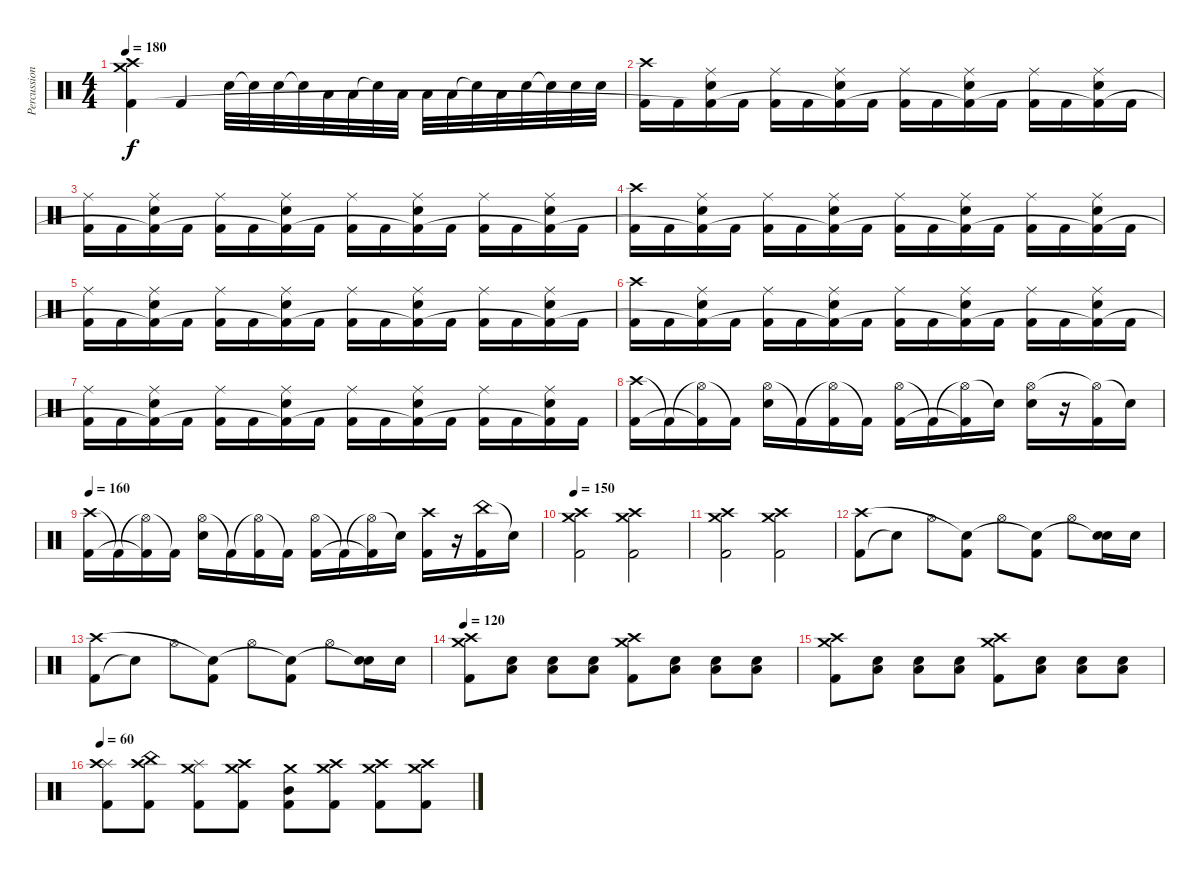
\track ("Percussions" "Percussion") {instrument percussion}
\staff {score}
\articulation defaults
\ts (4 4)
\tempo 180
\clef neutral
\ks c
("Crash high (hit)" "Crash medium (hit)" "Kick (hit) 2").4{dy f} "Kick (hit) 2".4 "Snare (hit) 2".32 "Snare (hit) 2"{t}.32 "Snare (hit) 2".32 "Snare (hit) 2"{t}.32 "Low Tom (hit)".32 "Low Tom (hit)".32 "Snare (hit)"{t}.32 "Low Tom (hit)".32 "Low Floor Tom (hit)".32 "Low Floor Tom (hit)".32 "Snare (hit)"{t}.32 "Low Floor Tom (hit)".32 "Snare (hit) 2".32 "Snare (hit)"{t}.32 "Snare (hit) 2".32 "Snare (hit) 2".32 |
("Crash high (hit)" "Kick (hit) 2").16 "Kick (hit) 2".16 ("Ride (middle)" "Electric Snare (hit)" "Kick (hit) 2"{t}).16 "Kick (hit) 2".16 ("Ride (middle)" "Kick (hit) 2").16 "Kick (hit) 2".16 ("Ride (middle)" "Electric Snare (hit)" "Kick (hit) 2"{t}).16 "Kick (hit) 2".16 ("Ride (middle)" "Kick (hit) 2").16 "Kick (hit) 2".16 ("Ride (middle)" "Electric Snare (hit)" "Kick (hit) 2"{t}).16 "Kick (hit) 2".16 ("Ride (middle)" "Kick (hit) 2").16 "Kick (hit) 2".16 ("Ride (middle)" "Electric Snare (hit)" "Kick (hit) 2"{t}).16 "Kick (hit) 2".16 |
("Ride (middle)" "Kick (hit) 2").16 "Kick (hit) 2".16 ("Ride (middle)" "Electric Snare (hit)" "Kick (hit) 2"{t}).16 "Kick (hit) 2".16 ("Ride (middle)" "Kick (hit) 2").16 "Kick (hit) 2".16 ("Ride (middle)" "Electric Snare (hit)" "Kick (hit) 2"{t}).16 "Kick (hit) 2".16 ("Ride (middle)" "Kick (hit) 2").16 "Kick (hit) 2".16 ("Ride (middle)" "Electric Snare (hit)" "Kick (hit) 2"{t}).16 "Kick (hit) 2".16 ("Ride (middle)" "Kick (hit) 2").16 "Kick (hit) 2".16 ("Ride (middle)" "Electric Snare (hit)" "Kick (hit) 2"{t}).16 "Kick (hit) 2".16 |
("Crash high (hit)" "Kick (hit) 2").16 "Kick (hit) 2".16 ("Ride (middle)" "Electric Snare (hit)" "Kick (hit) 2"{t}).16 "Kick (hit) 2".16 ("Ride (middle)" "Kick (hit) 2").16 "Kick (hit) 2".16 ("Ride (middle)" "Electric Snare (hit)" "Kick (hit) 2"{t}).16 "Kick (hit) 2".16 ("Ride (middle)" "Kick (hit) 2").16 "Kick (hit) 2".16 ("Ride (middle)" "Electric Snare (hit)" "Kick (hit) 2"{t}).16 "Kick (hit) 2".16 ("Ride (middle)" "Kick (hit) 2").16 "Kick (hit) 2".16 ("Ride (middle)" "Electric Snare (hit)" "Kick (hit) 2"{t}).16 "Kick (hit) 2".16 |
("Ride (middle)" "Kick (hit) 2").16 "Kick (hit) 2".16 ("Ride (middle)" "Electric Snare (hit)" "Kick (hit) 2"{t}).16 "Kick (hit) 2".16 ("Ride (middle)" "Kick (hit) 2").16 "Kick (hit) 2".16 ("Ride (middle)" "Electric Snare (hit)" "Kick (hit) 2"{t}).16 "Kick (hit) 2".16 ("Ride (middle)" "Kick (hit) 2").16 "Kick (hit) 2".16 ("Ride (middle)" "Electric Snare (hit)" "Kick (hit) 2"{t}).16 "Kick (hit) 2".16 ("Ride (middle)" "Kick (hit) 2").16 "Kick (hit) 2".16 ("Ride (middle)" "Electric Snare (hit)" "Kick (hit) 2"{t}).16 "Kick (hit) 2".16 |
("Crash high (hit)" "Kick (hit) 2").16 "Kick (hit) 2".16 ("Ride (middle)" "Electric Snare (hit)" "Kick (hit) 2"{t}).16 "Kick (hit) 2".16 ("Ride (middle)" "Kick (hit) 2").16 "Kick (hit) 2".16 ("Ride (middle)" "Electric Snare (hit)" "Kick (hit) 2"{t}).16 "Kick (hit) 2".16 ("Ride (middle)" "Kick (hit) 2").16 "Kick (hit) 2".16 ("Ride (middle)" "Electric Snare (hit)" "Kick (hit) 2"{t}).16 "Kick (hit) 2".16 ("Ride (middle)" "Kick (hit) 2").16 "Kick (hit) 2".16 ("Ride (middle)" "Electric Snare (hit)" "Kick (hit) 2"{t}).16 "Kick (hit) 2".16 |
("Ride (middle)" "Kick (hit) 2").16 "Kick (hit) 2".16 ("Ride (middle)" "Electric Snare (hit)" "Kick (hit) 2"{t}).16 "Kick (hit) 2".16 ("Ride (middle)" "Kick (hit) 2").16 "Kick (hit) 2".16 ("Ride (middle)" "Electric Snare (hit)" "Kick (hit) 2"{t}).16 "Kick (hit) 2".16 ("Ride (middle)" "Kick (hit) 2").16 "Kick (hit) 2".16 ("Ride (middle)" "Electric Snare (hit)" "Kick (hit) 2"{t}).16 "Kick (hit) 2".16 ("Ride (middle)" "Kick (hit) 2").16 "Kick (hit) 2".16 ("Ride (middle)" "Electric Snare (hit)" "Kick (hit) 2"{t}).16 "Kick (hit) 2".16 |
("Crash high (hit)" "Kick (hit) 2").16 "Kick (hit) 2"{t}.16 ("Hi-Hat (open)"{t} "Kick (hit) 2"{t}).16 "Kick (hit) 2"{t}.16 ("Hi-Hat (open)" "Electric Snare (hit)").16 "Kick (hit) 2"{t}.16 ("Hi-Hat (open)"{t} "Kick (hit) 2").16 "Kick (hit) 2"{t}.16 ("Hi-Hat (open)" "Kick (hit) 2").16 "Kick (hit) 2"{t}.16 ("Hi-Hat (open)"{t} "Kick (hit) 2"{t}).16 "Snare (hit)"{t}.16 ("Hi-Hat (open)" "Electric Snare (hit)").16 r.16 ("Hi-Hat (open)"{t} "Kick (hit) 2").16 "Snare (hit)"{t}.16 |
\tempo 160
("Crash high (hit)" "Kick (hit) 2").16 "Kick (hit) 2"{t}.16 ("Hi-Hat (open)"{t} "Kick (hit) 2"{t}).16 "Kick (hit) 2"{t}.16 ("Hi-Hat (open)" "Electric Snare (hit)").16 "Kick (hit) 2"{t}.16 ("Hi-Hat (open)"{t} "Kick (hit) 2").16 "Kick (hit) 2"{t}.16 ("Hi-Hat (open)" "Kick (hit) 2").16 "Kick (hit) 2"{t}.16 ("Hi-Hat (open)"{t} "Kick (hit) 2"{t}).16 "Snare (hit)"{t}.16 ("Crash high (hit)" "Kick (hit) 2").16 r.16 ("China (hit)" "Kick (hit) 2").16 "Snare (hit)"{t}.16 |
\tempo 150
("Kick (hit) 2" "Crash medium (hit)" "Crash high (hit)").2 ("Kick (hit) 2" "Crash medium (hit)" "Crash high (hit)").2 |
("Kick (hit) 2" "Crash medium (hit)" "Crash high (hit)").2 ("Kick (hit) 2" "Crash medium (hit)" "Crash high (hit)").2 |
("Kick (hit) 2" "Crash high (hit)").8 "Snare (hit)"{t}.8 "Hi-Hat (open)".8 ("Kick (hit) 2" "Snare (hit)"{t}).8 "Hi-Hat (open)".8 ("Kick (hit) 2" "Snare (hit)"{t}).8 "Hi-Hat (open)".8 ("Snare (hit) 2" "Snare (hit)"{t}).16 "Snare (hit) 2".16 |
("Kick (hit) 2" "Crash high (hit)").8 "Snare (hit)"{t}.8 "Hi-Hat (open)".8 ("Kick (hit) 2" "Snare (hit)"{t}).8 "Hi-Hat (open)".8 ("Kick (hit) 2" "Snare (hit)"{t}).8 "Hi-Hat (open)".8 ("Snare (hit) 2" "Snare (hit)"{t}).16 "Snare (hit) 2".16 |
\tempo 120
("Kick (hit) 2" "Crash medium (hit)" "Crash high (hit)").8 ("Snare (hit) 2" "Low Floor Tom (hit)").8 ("Snare (hit) 2" "Low Floor Tom (hit)").8 ("Snare (hit) 2" "Low Floor Tom (hit)").8 ("Kick (hit) 2" "Crash medium (hit)" "Crash high (hit)").8 ("Snare (hit) 2" "Low Floor Tom (hit)").8 ("Snare (hit) 2" "Low Floor Tom (hit)").8 ("Snare (hit) 2" "Low Floor Tom (hit)").8 |
("Kick (hit) 2" "Crash medium (hit)" "Crash high (hit)").8 ("Snare (hit) 2" "Low Floor Tom (hit)").8 ("Snare (hit) 2" "Low Floor Tom (hit)").8 ("Snare (hit) 2" "Low Floor Tom (hit)").8 ("Kick (hit) 2" "Crash medium (hit)" "Crash high (hit)").8 ("Snare (hit) 2" "Low Floor Tom (hit)").8 ("Snare (hit) 2" "Low Floor Tom (hit)").8 ("Snare (hit) 2" "Low Floor Tom (hit)").8 |
\tempo 60
("Splash (hit)" "Crash high (hit)" "Kick (hit) 2").8 ("Crash high (hit)" "China (hit)" "Kick (hit) 2").8 ("Splash (hit)" "Crash medium (hit)" "Kick (hit) 2").8 ("Crash medium (hit)" "Crash high (hit)" "Kick (hit) 2").8 ("Crash medium (hit)" "Mid Tom (hit)" "Kick (hit) 2").8 ("Crash high (hit)" "Crash medium (hit)" "Kick (hit) 2").8 ("Crash high (hit)" "Crash medium (hit)" "Kick (hit) 2").8 ("Crash high (hit)" "Crash medium (hit)" "Kick (hit) 2").8
